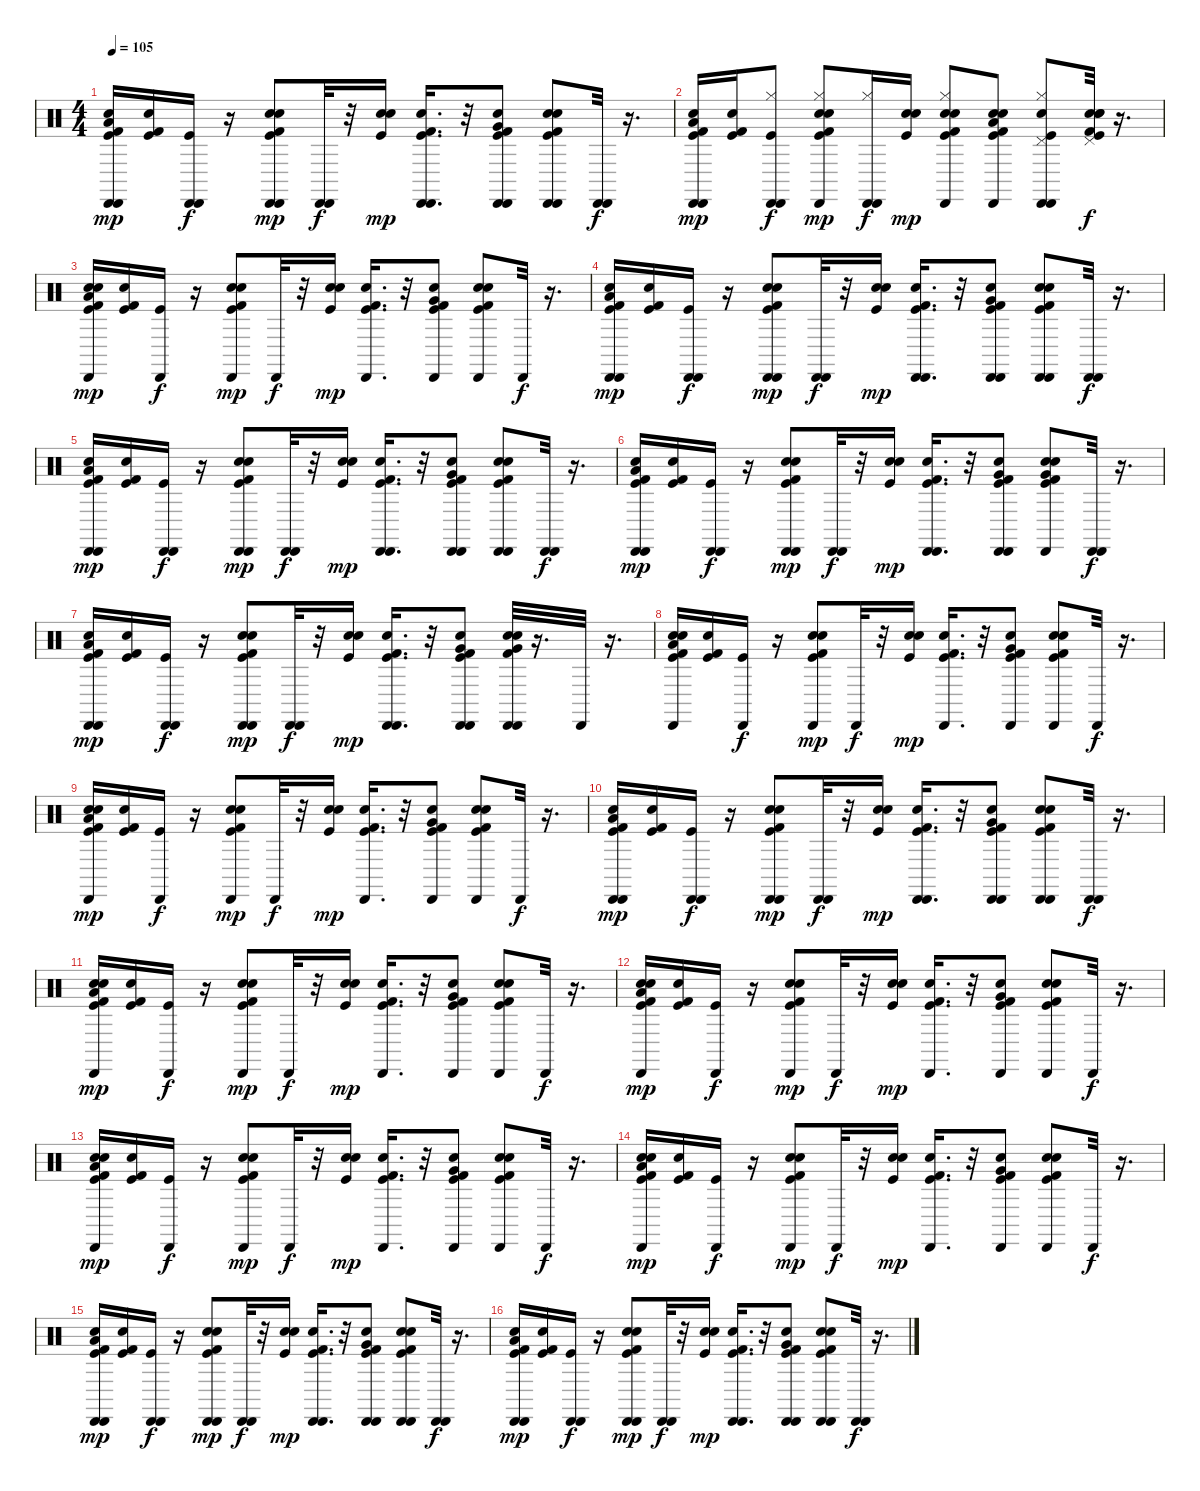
\track "" {instrument percussion}
\staff {score}
\articulation defaults
\ts (4 4)
\tempo 105
\clef neutral
\ks c
("Cabasa (hit)" "Kick (hit) 2" "Kick (hit)" "Low Floor Tom (hit)" "Cabasa (hit)" "Electric Snare (hit)").16{dy mp} ("Kick (hit) 2" "Kick (hit)" "Snare (hit) 2").16 ("Cabasa (hit)" "Cabasa (hit)" "Kick (hit)").16{dy f} r.16 ("Cabasa (hit)" "Electric Snare (hit)" "Snare (hit) 2" "Kick (hit) 2" "Cabasa (hit)" "Kick (hit)").8{dy mp} ("Cabasa (hit)" "Cabasa (hit)").32{dy f} r.32 ("Kick (hit)" "Electric Snare (hit)" "Snare (hit) 2").16{dy mp} ("Snare (hit) 2" "Kick (hit)" "Kick (hit) 2" "Cabasa (hit)" "Cabasa (hit)").16{d} r.32 ("Kick (hit)" "Snare (hit) 2" "Kick (hit) 2" "Cabasa (hit)" "Very Low Tom (hit)" "Cabasa (hit)").8 ("Snare (hit) 2" "Kick (hit)" "Cabasa (hit)" "Kick (hit) 2" "Cabasa (hit)" "Electric Snare (hit)").8 ("Cabasa (hit)" "Cabasa (hit)").32{dy f} r.16{d} |
("Cabasa (hit)" "Kick (hit) 2" "Kick (hit)" "Low Floor Tom (hit)" "Cabasa (hit)" "Electric Snare (hit)").16{dy mp} ("Kick (hit) 2" "Snare (hit) 2" "Kick (hit)").16 ("Cabasa (hit)" "Cowbell high (tip)" "Kick (hit)" "Cabasa (hit)").8{dy f} ("Cabasa (hit)" "Electric Snare (hit)" "Snare (hit) 2" "Kick (hit) 2" "Cowbell high (tip)" "Kick (hit)").8{dy mp} ("Cowbell high (tip)" "Cabasa (hit)" "Cabasa (hit)").16{dy f} ("Kick (hit)" "Snare (hit) 2" "Electric Snare (hit)").16{dy mp} ("Electric Snare (hit)" "Snare (hit) 2" "Cabasa (hit)" "Kick (hit)" "Cowbell high (tip)" "Kick (hit) 2").8 ("Low Floor Tom (hit)" "Electric Snare (hit)" "Kick (hit)" "Snare (hit) 2" "Kick (hit) 2" "Cabasa (hit)").8 ("Pedal Hi-Hat (hit)" "Cowbell high (tip)" "Snare (hit) 2" "Cabasa (hit)" "Kick (hit)" "Cabasa (hit)").8 ("Hand Clap (hit)" "Pedal Hi-Hat (hit)" "Electric Snare (hit)" "Snare (hit) 2" "Kick (hit) 2" "Kick (hit)").32{dy f} r.16{d} |
("Kick (hit) 2" "Electric Snare (hit)" "Kick (hit)" "Cabasa (hit)" "Low Floor Tom (hit)" "Snare (hit) 2").16{dy mp} ("Kick (hit)" "Snare (hit) 2" "Kick (hit) 2").16 ("Cabasa (hit)" "Kick (hit)").16{dy f} r.16 ("Kick (hit) 2" "Cabasa (hit)" "Hand Clap (hit)" "Snare (hit) 2" "Kick (hit)").8{dy mp} "Cabasa (hit)".32{dy f} r.32 ("Kick (hit)" "Snare (hit) 2" "Electric Snare (hit)").16{dy mp} ("Kick (hit)" "Snare (hit) 2" "Kick (hit) 2" "Cabasa (hit)").16{d} r.32 ("Very Low Tom (hit)" "Snare (hit) 2" "Cabasa (hit)" "Kick (hit) 2" "Kick (hit)").8 ("Kick (hit)" "Hand Clap (hit)" "Snare (hit) 2" "Cabasa (hit)" "Kick (hit) 2").8 "Cabasa (hit)".32{dy f} r.16{d} |
("Kick (hit)" "Cabasa (hit)" "Electric Snare (hit)" "Low Floor Tom (hit)" "Cabasa (hit)" "Kick (hit) 2").16{dy mp} ("Kick (hit) 2" "Kick (hit)" "Snare (hit) 2").16 ("Kick (hit)" "Cabasa (hit)" "Cabasa (hit)").16{dy f} r.16 ("Cabasa (hit)" "Hand Clap (hit)" "Kick (hit) 2" "Kick (hit)" "Cabasa (hit)" "Snare (hit) 2").8{dy mp} ("Cabasa (hit)" "Cabasa (hit)").32{dy f} r.32 ("Snare (hit) 2" "Electric Snare (hit)" "Kick (hit)").16{dy mp} ("Snare (hit) 2" "Cabasa (hit)" "Kick (hit)" "Cabasa (hit)" "Kick (hit) 2").16{d} r.32 ("Kick (hit) 2" "Very Low Tom (hit)" "Snare (hit) 2" "Cabasa (hit)" "Cabasa (hit)" "Kick (hit)").8 ("Kick (hit)" "Kick (hit) 2" "Cabasa (hit)" "Hand Clap (hit)" "Snare (hit) 2" "Cabasa (hit)").8 ("Cabasa (hit)" "Cabasa (hit)").32{dy f} r.16{d} |
("Cabasa (hit)" "Kick (hit) 2" "Electric Snare (hit)" "Kick (hit)" "Cabasa (hit)" "Low Floor Tom (hit)").16{dy mp} ("Snare (hit) 2" "Kick (hit)" "Kick (hit) 2").16 ("Kick (hit)" "Cabasa (hit)" "Cabasa (hit)").16{dy f} r.16 ("Cabasa (hit)" "Kick (hit) 2" "Hand Clap (hit)" "Snare (hit) 2" "Kick (hit)" "Cabasa (hit)").8{dy mp} ("Cabasa (hit)" "Cabasa (hit)").32{dy f} r.32 ("Electric Snare (hit)" "Snare (hit) 2" "Kick (hit)").16{dy mp} ("Kick (hit)" "Snare (hit) 2" "Cabasa (hit)" "Cabasa (hit)" "Kick (hit) 2").16{d} r.32 ("Very Low Tom (hit)" "Cabasa (hit)" "Snare (hit) 2" "Kick (hit)" "Kick (hit) 2" "Cabasa (hit)").8 ("Kick (hit) 2" "Hand Clap (hit)" "Snare (hit) 2" "Cabasa (hit)" "Cabasa (hit)" "Kick (hit)").8 ("Cabasa (hit)" "Cabasa (hit)").32{dy f} r.16{d} |
("Low Floor Tom (hit)" "Kick (hit) 2" "Kick (hit)" "Electric Snare (hit)" "Cabasa (hit)" "Cabasa (hit)").16{dy mp} ("Snare (hit) 2" "Kick (hit)" "Kick (hit) 2").16 ("Kick (hit)" "Cabasa (hit)" "Cabasa (hit)").16{dy f} r.16 ("Cabasa (hit)" "Cabasa (hit)" "Kick (hit) 2" "Kick (hit)" "Snare (hit) 2" "Hand Clap (hit)").8{dy mp} ("Cabasa (hit)" "Cabasa (hit)").32{dy f} r.32 ("Kick (hit)" "Electric Snare (hit)" "Snare (hit) 2").16{dy mp} ("Snare (hit) 2" "Kick (hit) 2" "Cabasa (hit)" "Kick (hit)" "Cabasa (hit)").16{d} r.32 ("Very Low Tom (hit)" "Kick (hit) 2" "Snare (hit) 2" "Kick (hit)" "Cabasa (hit)" "Cabasa (hit)").8 ("Very Low Tom (hit)" "Kick (hit)" "Cabasa (hit)" "Snare (hit) 2" "Kick (hit) 2" "Hand Clap (hit)").8 ("Cabasa (hit)" "Cabasa (hit)").32{dy f} r.16{d} |
("Cabasa (hit)" "Kick (hit)" "Cabasa (hit)" "Kick (hit) 2" "Low Floor Tom (hit)" "Electric Snare (hit)").16{dy mp} ("Kick (hit)" "Snare (hit) 2" "Kick (hit) 2").16 ("Cabasa (hit)" "Cabasa (hit)" "Kick (hit)").16{dy f} r.16 ("Cabasa (hit)" "Snare (hit) 2" "Kick (hit)" "Hand Clap (hit)" "Cabasa (hit)" "Kick (hit) 2").8{dy mp} ("Cabasa (hit)" "Cabasa (hit)").32{dy f} r.32 ("Electric Snare (hit)" "Snare (hit) 2" "Kick (hit)").16{dy mp} ("Kick (hit) 2" "Cabasa (hit)" "Cabasa (hit)" "Snare (hit) 2" "Kick (hit)").16{d} r.32 ("Kick (hit)" "Cabasa (hit)" "Kick (hit) 2" "Very Low Tom (hit)" "Snare (hit) 2" "Cabasa (hit)").8 ("Hand Clap (hit)" "Very Low Tom (hit)" "Kick (hit) 2" "Cabasa (hit)" "Cabasa (hit)" "Electric Snare (hit)").32 r.16{d} "Cabasa (hit)".32 r.16{d} |
("Cabasa (hit)" "Low Floor Tom (hit)" "Electric Snare (hit)" "Kick (hit) 2" "Kick (hit)" "Snare (hit) 2").16 ("Kick (hit) 2" "Kick (hit)" "Snare (hit) 2").16 ("Kick (hit)" "Cabasa (hit)").16{dy f} r.16 ("Cabasa (hit)" "Electric Snare (hit)" "Kick (hit) 2" "Kick (hit)" "Snare (hit) 2").8{dy mp} "Cabasa (hit)".32{dy f} r.32 ("Kick (hit)" "Snare (hit) 2" "Electric Snare (hit)").16{dy mp} ("Cabasa (hit)" "Kick (hit) 2" "Snare (hit) 2" "Kick (hit)").16{d} r.32 ("Kick (hit)" "Snare (hit) 2" "Kick (hit) 2" "Cabasa (hit)" "Very Low Tom (hit)").8 ("Kick (hit) 2" "Cabasa (hit)" "Electric Snare (hit)" "Snare (hit) 2" "Kick (hit)").8 "Cabasa (hit)".32{dy f} r.16{d} |
("Kick (hit) 2" "Electric Snare (hit)" "Kick (hit)" "Cabasa (hit)" "Low Floor Tom (hit)" "Snare (hit) 2").16{dy mp} ("Kick (hit)" "Snare (hit) 2" "Kick (hit) 2").16 ("Cabasa (hit)" "Kick (hit)").16{dy f} r.16 ("Kick (hit) 2" "Cabasa (hit)" "Hand Clap (hit)" "Snare (hit) 2" "Kick (hit)").8{dy mp} "Cabasa (hit)".32{dy f} r.32 ("Kick (hit)" "Snare (hit) 2" "Electric Snare (hit)").16{dy mp} ("Kick (hit)" "Snare (hit) 2" "Kick (hit) 2" "Cabasa (hit)").16{d} r.32 ("Very Low Tom (hit)" "Snare (hit) 2" "Cabasa (hit)" "Kick (hit) 2" "Kick (hit)").8 ("Kick (hit)" "Hand Clap (hit)" "Snare (hit) 2" "Cabasa (hit)" "Kick (hit) 2").8 "Cabasa (hit)".32{dy f} r.16{d} |
("Kick (hit)" "Cabasa (hit)" "Electric Snare (hit)" "Low Floor Tom (hit)" "Cabasa (hit)" "Kick (hit) 2").16{dy mp} ("Kick (hit) 2" "Kick (hit)" "Snare (hit) 2").16 ("Kick (hit)" "Cabasa (hit)" "Cabasa (hit)").16{dy f} r.16 ("Cabasa (hit)" "Hand Clap (hit)" "Kick (hit) 2" "Kick (hit)" "Cabasa (hit)" "Snare (hit) 2").8{dy mp} ("Cabasa (hit)" "Cabasa (hit)").32{dy f} r.32 ("Snare (hit) 2" "Electric Snare (hit)" "Kick (hit)").16{dy mp} ("Snare (hit) 2" "Cabasa (hit)" "Kick (hit)" "Cabasa (hit)" "Kick (hit) 2").16{d} r.32 ("Kick (hit) 2" "Very Low Tom (hit)" "Snare (hit) 2" "Cabasa (hit)" "Cabasa (hit)" "Kick (hit)").8 ("Kick (hit)" "Kick (hit) 2" "Cabasa (hit)" "Hand Clap (hit)" "Snare (hit) 2" "Cabasa (hit)").8 ("Cabasa (hit)" "Cabasa (hit)").32{dy f} r.16{d} |
("Kick (hit) 2" "Kick (hit)" "Cabasa (hit)" "Electric Snare (hit)" "Low Floor Tom (hit)" "Snare (hit) 2").16{dy mp} ("Kick (hit) 2" "Snare (hit) 2" "Kick (hit)").16 ("Kick (hit)" "Cabasa (hit)").16{dy f} r.16 ("Electric Snare (hit)" "Cabasa (hit)" "Kick (hit) 2" "Kick (hit)" "Snare (hit) 2").8{dy mp} "Cabasa (hit)".32{dy f} r.32 ("Kick (hit)" "Snare (hit) 2" "Electric Snare (hit)").16{dy mp} ("Snare (hit) 2" "Kick (hit)" "Cabasa (hit)" "Kick (hit) 2").16{d} r.32 ("Kick (hit)" "Snare (hit) 2" "Kick (hit) 2" "Cabasa (hit)" "Very Low Tom (hit)").8 ("Snare (hit) 2" "Kick (hit)" "Electric Snare (hit)" "Cabasa (hit)" "Kick (hit) 2").8 "Cabasa (hit)".32{dy f} r.16{d} |
("Electric Snare (hit)" "Kick (hit) 2" "Kick (hit)" "Cabasa (hit)" "Low Floor Tom (hit)" "Snare (hit) 2").16{dy mp} ("Kick (hit) 2" "Kick (hit)" "Snare (hit) 2").16 ("Kick (hit)" "Cabasa (hit)").16{dy f} r.16 ("Electric Snare (hit)" "Snare (hit) 2" "Kick (hit)" "Cabasa (hit)" "Kick (hit) 2").8{dy mp} "Cabasa (hit)".32{dy f} r.32 ("Electric Snare (hit)" "Kick (hit)" "Snare (hit) 2").16{dy mp} ("Snare (hit) 2" "Kick (hit)" "Kick (hit) 2" "Cabasa (hit)").16{d} r.32 ("Very Low Tom (hit)" "Snare (hit) 2" "Kick (hit)" "Cabasa (hit)" "Kick (hit) 2").8 ("Electric Snare (hit)" "Kick (hit)" "Cabasa (hit)" "Snare (hit) 2" "Kick (hit) 2").8 "Cabasa (hit)".32{dy f} r.16{d} |
("Kick (hit) 2" "Kick (hit)" "Cabasa (hit)" "Electric Snare (hit)" "Low Floor Tom (hit)" "Snare (hit) 2").16{dy mp} ("Kick (hit) 2" "Snare (hit) 2" "Kick (hit)").16 ("Kick (hit)" "Cabasa (hit)").16{dy f} r.16 ("Electric Snare (hit)" "Cabasa (hit)" "Kick (hit) 2" "Kick (hit)" "Snare (hit) 2").8{dy mp} "Cabasa (hit)".32{dy f} r.32 ("Kick (hit)" "Snare (hit) 2" "Electric Snare (hit)").16{dy mp} ("Snare (hit) 2" "Kick (hit)" "Cabasa (hit)" "Kick (hit) 2").16{d} r.32 ("Kick (hit)" "Snare (hit) 2" "Kick (hit) 2" "Cabasa (hit)" "Very Low Tom (hit)").8 ("Snare (hit) 2" "Kick (hit)" "Electric Snare (hit)" "Cabasa (hit)" "Kick (hit) 2").8 "Cabasa (hit)".32{dy f} r.16{d} |
("Electric Snare (hit)" "Kick (hit) 2" "Kick (hit)" "Cabasa (hit)" "Low Floor Tom (hit)" "Snare (hit) 2").16{dy mp} ("Kick (hit) 2" "Kick (hit)" "Snare (hit) 2").16 ("Kick (hit)" "Cabasa (hit)").16{dy f} r.16 ("Electric Snare (hit)" "Snare (hit) 2" "Kick (hit)" "Cabasa (hit)" "Kick (hit) 2").8{dy mp} "Cabasa (hit)".32{dy f} r.32 ("Electric Snare (hit)" "Kick (hit)" "Snare (hit) 2").16{dy mp} ("Snare (hit) 2" "Kick (hit)" "Kick (hit) 2" "Cabasa (hit)").16{d} r.32 ("Very Low Tom (hit)" "Snare (hit) 2" "Kick (hit)" "Cabasa (hit)" "Kick (hit) 2").8 ("Electric Snare (hit)" "Kick (hit)" "Cabasa (hit)" "Snare (hit) 2" "Kick (hit) 2").8 "Cabasa (hit)".32{dy f} r.16{d} |
("Kick (hit) 2" "Kick (hit)" "Cabasa (hit)" "Electric Snare (hit)" "Low Floor Tom (hit)" "Cabasa (hit)").16{dy mp} ("Kick (hit) 2" "Kick (hit)" "Snare (hit) 2").16 ("Cabasa (hit)" "Kick (hit)" "Cabasa (hit)").16{dy f} r.16 ("Electric Snare (hit)" "Cabasa (hit)" "Snare (hit) 2" "Cabasa (hit)" "Kick (hit)" "Kick (hit) 2").8{dy mp} ("Cabasa (hit)" "Cabasa (hit)").32{dy f} r.32 ("Kick (hit)" "Snare (hit) 2" "Electric Snare (hit)").16{dy mp} ("Snare (hit) 2" "Kick (hit)" "Cabasa (hit)" "Cabasa (hit)" "Kick (hit) 2").16{d} r.32 ("Cabasa (hit)" "Very Low Tom (hit)" "Kick (hit)" "Snare (hit) 2" "Cabasa (hit)" "Kick (hit) 2").8 ("Kick (hit)" "Cabasa (hit)" "Electric Snare (hit)" "Snare (hit) 2" "Cabasa (hit)" "Kick (hit) 2").8 ("Cabasa (hit)" "Cabasa (hit)").32{dy f} r.16{d} |
("Cabasa (hit)" "Electric Snare (hit)" "Kick (hit) 2" "Kick (hit)" "Cabasa (hit)" "Low Floor Tom (hit)").16{dy mp} ("Kick (hit) 2" "Snare (hit) 2" "Kick (hit)").16 ("Cabasa (hit)" "Kick (hit)" "Cabasa (hit)").16{dy f} r.16 ("Electric Snare (hit)" "Snare (hit) 2" "Kick (hit)" "Cabasa (hit)" "Kick (hit) 2" "Cabasa (hit)").8{dy mp} ("Cabasa (hit)" "Cabasa (hit)").32{dy f} r.32 ("Snare (hit) 2" "Electric Snare (hit)" "Kick (hit)").16{dy mp} ("Kick (hit)" "Snare (hit) 2" "Cabasa (hit)" "Kick (hit) 2" "Cabasa (hit)").16{d} r.32 ("Very Low Tom (hit)" "Snare (hit) 2" "Cabasa (hit)" "Kick (hit) 2" "Kick (hit)" "Cabasa (hit)").8 ("Electric Snare (hit)" "Kick (hit)" "Kick (hit) 2" "Snare (hit) 2" "Cabasa (hit)" "Cabasa (hit)").8 ("Cabasa (hit)" "Cabasa (hit)").32{dy f} r.16{d}
